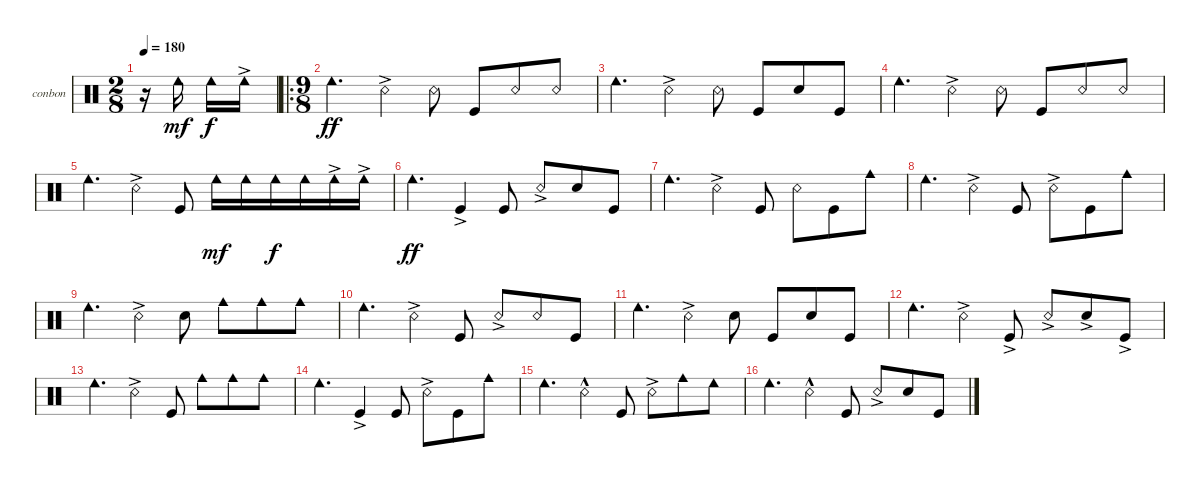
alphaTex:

\defaultSystemsLayout 4
\bracketExtendMode groupsimilarinstruments
\firstSystemTrackNameOrientation horizontal
\otherSystemsTrackNameOrientation horizontal
\track ("Bongos N Congas" "conbon") {instrument percussion}
\staff {score}
\articulation defaults
\ts (2 8)
\tempo 180
\clef neutral
\ks c
r.16{dy mf} "Cowbell low (hit)".16 "Cowbell low (hit)".16{dy f} "Cowbell low (hit)"{ac}.16 |
\ro
\ts (9 8)
\scale
0.472222 "Cowbell low (hit)".4{d dy ff} "Snare (rim shot)"{ac}.4 "Snare (rim shot)".8 "Kick (hit)".8 "Snare (rim shot)".8 "Snare (rim shot)".8 |
\scale
0.263889 "Cowbell low (hit)".4{d} "Snare (rim shot)"{ac}.4 "Snare (rim shot)".8 "Kick (hit)".8 "Snare (hit) 2".8 "Kick (hit)".8 |
\scale
0.263889 "Cowbell low (hit)".4{d} "Snare (rim shot)"{ac}.4 "Snare (rim shot)".8 "Kick (hit)".8 "Snare (rim shot)".8 "Snare (rim shot)".8 |
\scale
0.333333 "Cowbell low (hit)".4{d} "Snare (rim shot)"{ac}.4 "Kick (hit)".8 "Cowbell low (hit)".16{dy mf} "Cowbell low (hit)".16 "Cowbell low (hit)".16{dy f} "Cowbell low (hit)".16 "Cowbell low (hit)"{ac}.16 "Cowbell low (hit)"{ac}.16 |
\scale
0.333333 "Cowbell low (hit)".4{d dy ff} "Kick (hit)"{ac}.4 "Kick (hit)".8 "Snare (rim shot)"{ac}.8 "Snare (hit) 2".8 "Kick (hit)".8 |
\scale
0.333333 "Cowbell low (hit)".4{d} "Snare (rim shot)"{ac}.4 "Kick (hit)".8 "Snare (rim shot)".8 "Kick (hit)".8 "Cowbell medium (hit)".8 |
\scale
0.333333 "Cowbell low (hit)".4{d} "Snare (rim shot)"{ac}.4 "Kick (hit)".8 "Snare (rim shot)"{ac}.8 "Kick (hit)".8 "Cowbell medium (hit)".8 |
\scale
0.333333 "Cowbell low (hit)".4{d} "Snare (rim shot)"{ac}.4 "Snare (hit) 2".8 "Cowbell medium (hit)".8 "Cowbell medium (hit)".8 "Cowbell medium (hit)".8 |
\scale
0.333333 "Cowbell low (hit)".4{d} "Snare (rim shot)"{ac}.4 "Kick (hit)".8 "Snare (rim shot)"{ac}.8 "Snare (rim shot)".8 "Kick (hit)".8 |
\scale
0.333333 "Cowbell low (hit)".4{d} "Snare (rim shot)"{ac}.4 "Snare (hit) 2".8 "Kick (hit)".8 "Snare (hit) 2".8 "Kick (hit)".8 |
\scale
0.333333 "Cowbell low (hit)".4{d} "Snare (rim shot)"{ac}.4 "Kick (hit)"{ac}.8 "Snare (rim shot)"{ac}.8 "Snare (hit) 2"{ac}.8 "Kick (hit)"{ac}.8 |
\scale
0.333333 "Cowbell low (hit)".4{d} "Snare (rim shot)"{ac}.4 "Kick (hit)".8 "Cowbell medium (hit)".8 "Cowbell medium (hit)".8 "Cowbell medium (hit)".8 |
\scale
0.333333 "Cowbell low (hit)".4{d} "Kick (hit)"{ac}.4 "Kick (hit)".8 "Snare (rim shot)"{ac}.8 "Kick (hit)".8 "Cowbell medium (hit)".8 |
\scale
0.333333 "Cowbell low (hit)".4{d} "Snare (rim shot)"{hac}.4 "Kick (hit)".8 "Snare (rim shot)"{ac}.8 "Cowbell medium (hit)".8 "Cowbell low (hit)".8 |
\scale
0.333333 "Cowbell low (hit)".4{d} "Snare (rim shot)"{hac}.4 "Kick (hit)".8 "Snare (rim shot)"{ac}.8 "Snare (hit) 2".8 "Kick (hit)".8
